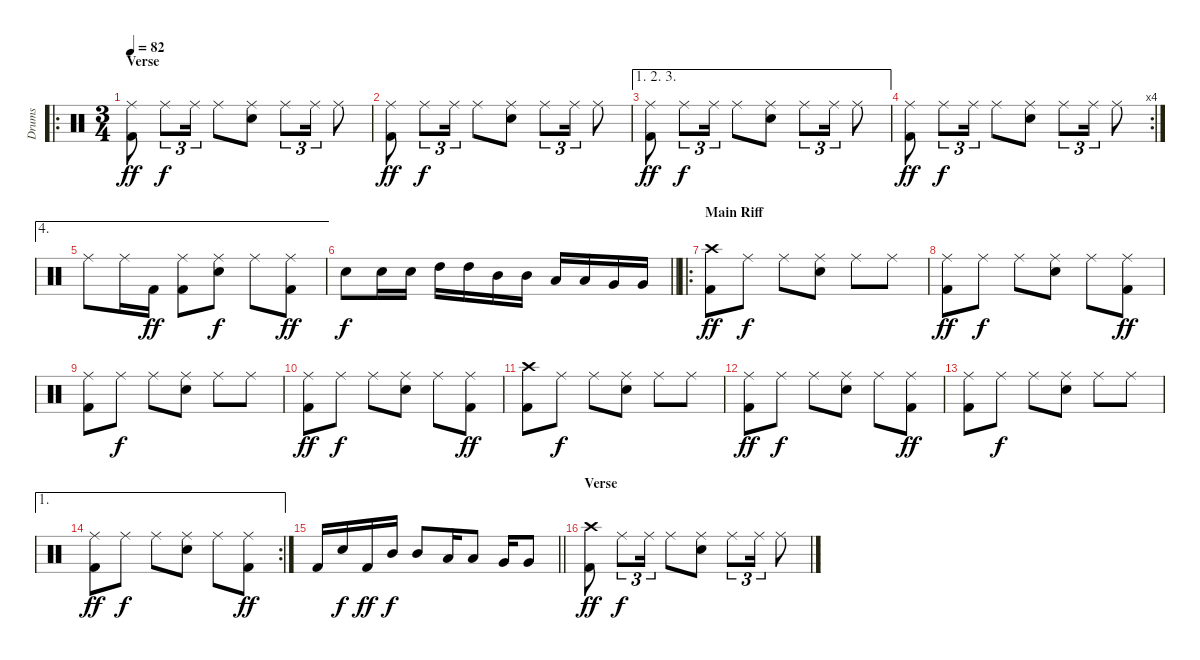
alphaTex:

\track ("Drums" "Drums") {instrument percussion}
\staff {score}
\articulation defaults
\ro
\ts (3 4)
\section ("" "Verse")
\tempo 82
\clef neutral
\ks c
("Ride (middle)" "Kick (hit) 2").8{dy ff} "Ride (middle)".8{tu (3 2) dy f} "Ride (middle)".16{tu (3 2)} "Ride (middle)".8 ("Ride (middle)" "Electric Snare (hit)").8 "Ride (middle)".8{tu (3 2)} "Ride (middle)".16{tu (3 2)} "Ride (middle)".8 |
("Ride (middle)" "Kick (hit) 2").8{dy ff} "Ride (middle)".8{tu (3 2) dy f} "Ride (middle)".16{tu (3 2)} "Ride (middle)".8 ("Ride (middle)" "Electric Snare (hit)").8 "Ride (middle)".8{tu (3 2)} "Ride (middle)".16{tu (3 2)} "Ride (middle)".8 |
\ae (1 2 3)
("Ride (middle)" "Kick (hit) 2").8{dy ff} "Ride (middle)".8{tu (3 2) dy f} "Ride (middle)".16{tu (3 2)} "Ride (middle)".8 ("Ride (middle)" "Electric Snare (hit)").8 "Ride (middle)".8{tu (3 2)} "Ride (middle)".16{tu (3 2)} "Ride (middle)".8 |
\rc 4
("Ride (middle)" "Kick (hit) 2").8{dy ff} "Ride (middle)".8{tu (3 2) dy f} "Ride (middle)".16{tu (3 2)} "Ride (middle)".8 ("Ride (middle)" "Electric Snare (hit)").8 "Ride (middle)".8{tu (3 2)} "Ride (middle)".16{tu (3 2)} "Ride (middle)".8 |
\ae 4 "Ride (middle)".8 "Ride (middle)".16 "Kick (hit) 2".16{dy ff}
("Ride (middle)" "Kick (hit) 2").8 ("Ride (middle)" "Electric Snare (hit)").8{dy f} "Ride (middle)".8 ("Ride (middle)" "Kick (hit) 2").8{dy ff} |
\barLineRight lightlight "Electric Snare (hit)".8{dy f} "Electric Snare (hit)".16 "Electric Snare (hit)".16 "High Tom (hit)".16 "High Tom (hit)".16 "Mid Tom (hit)".16 "Mid Tom (hit)".16 "Low Tom (hit)".16 "Low Tom (hit)".16 "Very Low Tom (hit)".16 "Very Low Tom (hit)".16
|
\ro
\section ("" "Main Riff")
("Crash high (hit)" "Kick (hit) 2").8{dy ff} "Ride (middle)".8{dy f} "Ride (middle)".8 ("Ride (middle)" "Electric Snare (hit)").8 "Ride (middle)".8 "Ride (middle)".8 |
("Ride (middle)" "Kick (hit) 2").8{dy ff} "Ride (middle)".8{dy f} "Ride (middle)".8 ("Ride (middle)" "Electric Snare (hit)").8 "Ride (middle)".8 ("Ride (middle)" "Kick (hit) 2").8{dy ff} |
("Ride (middle)" "Kick (hit) 2").8 "Ride (middle)".8{dy f} "Ride (middle)".8 ("Ride (middle)" "Electric Snare (hit)").8 "Ride (middle)".8 "Ride (middle)".8 |
("Ride (middle)" "Kick (hit) 2").8{dy ff} "Ride (middle)".8{dy f} "Ride (middle)".8 ("Ride (middle)" "Electric Snare (hit)").8 "Ride (middle)".8 ("Ride (middle)" "Kick (hit) 2").8{dy ff} |
("Crash high (hit)" "Kick (hit) 2").8 "Ride (middle)".8{dy f} "Ride (middle)".8 ("Ride (middle)" "Electric Snare (hit)").8 "Ride (middle)".8 "Ride (middle)".8 |
("Ride (middle)" "Kick (hit) 2").8{dy ff} "Ride (middle)".8{dy f} "Ride (middle)".8 ("Ride (middle)" "Electric Snare (hit)").8 "Ride (middle)".8 ("Ride (middle)" "Kick (hit) 2").8{dy ff} |
("Ride (middle)" "Kick (hit) 2").8 "Ride (middle)".8{dy f} "Ride (middle)".8 ("Ride (middle)" "Electric Snare (hit)").8 "Ride (middle)".8 "Ride (middle)".8 |
\ae 1
\rc 2
("Ride (middle)" "Kick (hit) 2").8{dy ff} "Ride (middle)".8{dy f} "Ride (middle)".8 ("Ride (middle)" "Electric Snare (hit)").8 "Ride (middle)".8 ("Ride (middle)" "Kick (hit) 2").8{dy ff} |
\barLineRight lightlight "Kick (hit) 2".16 "Electric Snare (hit)".16{dy f} "Kick (hit) 2".16{dy ff} "Mid Tom (hit)".16{dy f} "Mid Tom (hit)".8 "Low Tom (hit)".16 "Low Tom (hit)".8 "Very Low Tom (hit)".16 "Very Low Tom (hit)".8
|
\section ("" "Verse")
("Crash high (hit)" "Kick (hit) 2").8{dy ff} "Ride (middle)".8{tu (3 2) dy f} "Ride (middle)".16{tu (3 2)} "Ride (middle)".8 ("Ride (middle)" "Electric Snare (hit)").8 "Ride (middle)".8{tu (3 2)} "Ride (middle)".16{tu (3 2)} "Ride (middle)".8
